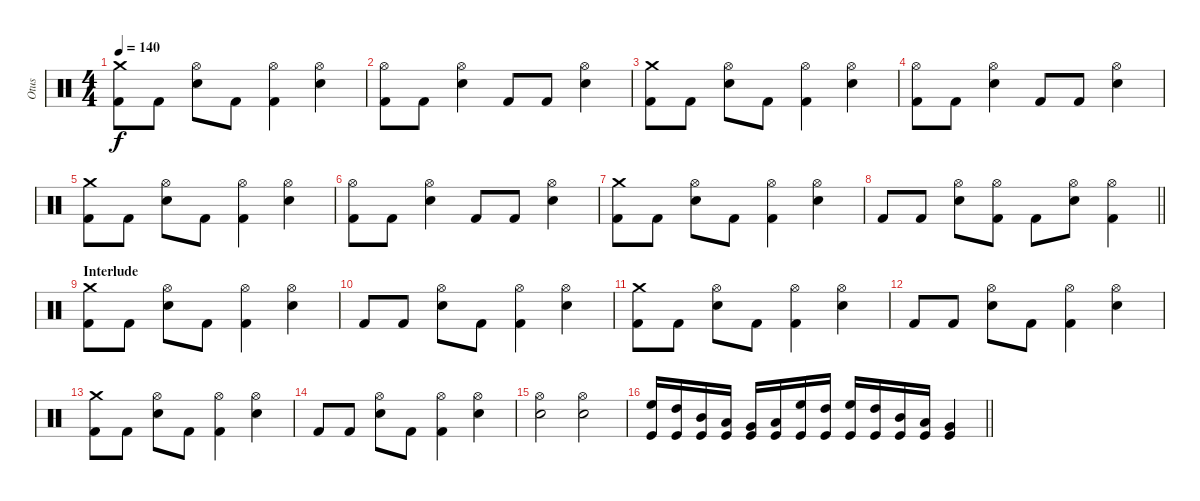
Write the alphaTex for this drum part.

\track ("Otus" "Otus") {instrument percussion}
\staff {score}
\articulation defaults
\ts (4 4)
\tempo 140
\clef neutral
\ks c
("Crash medium (hit)" "Kick (hit) 2").8{dy f} "Kick (hit) 2".8 ("Hi-Hat (open)" "Electric Snare (hit)").8 "Kick (hit) 2".8 ("Hi-Hat (open)" "Kick (hit) 2").4 ("Hi-Hat (open)" "Electric Snare (hit)").4 |
("Hi-Hat (open)" "Kick (hit) 2").8 "Kick (hit) 2".8 ("Hi-Hat (open)" "Electric Snare (hit)").4 "Kick (hit) 2".8 "Kick (hit) 2".8 ("Hi-Hat (open)" "Electric Snare (hit)").4 |
("Crash medium (hit)" "Kick (hit) 2").8 "Kick (hit) 2".8 ("Hi-Hat (open)" "Electric Snare (hit)").8 "Kick (hit) 2".8 ("Hi-Hat (open)" "Kick (hit) 2").4 ("Hi-Hat (open)" "Electric Snare (hit)").4 |
("Hi-Hat (open)" "Kick (hit) 2").8 "Kick (hit) 2".8 ("Hi-Hat (open)" "Electric Snare (hit)").4 "Kick (hit) 2".8 "Kick (hit) 2".8 ("Hi-Hat (open)" "Electric Snare (hit)").4 |
("Crash medium (hit)" "Kick (hit) 2").8 "Kick (hit) 2".8 ("Hi-Hat (open)" "Electric Snare (hit)").8 "Kick (hit) 2".8 ("Hi-Hat (open)" "Kick (hit) 2").4 ("Hi-Hat (open)" "Electric Snare (hit)").4 |
("Hi-Hat (open)" "Kick (hit) 2").8 "Kick (hit) 2".8 ("Hi-Hat (open)" "Electric Snare (hit)").4 "Kick (hit) 2".8 "Kick (hit) 2".8 ("Hi-Hat (open)" "Electric Snare (hit)").4 |
("Crash medium (hit)" "Kick (hit) 2").8 "Kick (hit) 2".8 ("Hi-Hat (open)" "Electric Snare (hit)").8 "Kick (hit) 2".8 ("Hi-Hat (open)" "Kick (hit) 2").4 ("Hi-Hat (open)" "Electric Snare (hit)").4 |
\barLineRight lightlight "Kick (hit) 2".8 "Kick (hit) 2".8
("Hi-Hat (open)" "Electric Snare (hit)").8 ("Hi-Hat (open)" "Kick (hit) 2").8 "Kick (hit) 2".8 ("Hi-Hat (open)" "Electric Snare (hit)").8 ("Hi-Hat (open)" "Kick (hit) 2").4 |
\section ("" "Interlude")
("Crash medium (hit)" "Kick (hit) 2").8 "Kick (hit) 2".8 ("Hi-Hat (open)" "Electric Snare (hit)").8 "Kick (hit) 2".8 ("Hi-Hat (open)" "Kick (hit) 2").4 ("Hi-Hat (open)" "Electric Snare (hit)").4 |
"Kick (hit) 2".8 "Kick (hit) 2".8 ("Hi-Hat (open)" "Electric Snare (hit)").8 "Kick (hit) 2".8 ("Hi-Hat (open)" "Kick (hit) 2").4 ("Hi-Hat (open)" "Electric Snare (hit)").4 |
("Crash medium (hit)" "Kick (hit) 2").8 "Kick (hit) 2".8 ("Hi-Hat (open)" "Electric Snare (hit)").8 "Kick (hit) 2".8 ("Hi-Hat (open)" "Kick (hit) 2").4 ("Hi-Hat (open)" "Electric Snare (hit)").4 |
"Kick (hit) 2".8 "Kick (hit) 2".8 ("Hi-Hat (open)" "Electric Snare (hit)").8 "Kick (hit) 2".8 ("Hi-Hat (open)" "Kick (hit) 2").4 ("Hi-Hat (open)" "Electric Snare (hit)").4 |
("Crash medium (hit)" "Kick (hit) 2").8 "Kick (hit) 2".8 ("Hi-Hat (open)" "Electric Snare (hit)").8 "Kick (hit) 2".8 ("Hi-Hat (open)" "Kick (hit) 2").4 ("Hi-Hat (open)" "Electric Snare (hit)").4 |
"Kick (hit) 2".8 "Kick (hit) 2".8 ("Hi-Hat (open)" "Electric Snare (hit)").8 "Kick (hit) 2".8 ("Hi-Hat (open)" "Kick (hit) 2").4 ("Hi-Hat (open)" "Electric Snare (hit)").4 |
("Hi-Hat (open)" "Electric Snare (hit)").2 ("Hi-Hat (open)" "Electric Snare (hit)").2 |
\barLineRight lightlight
("High Floor Tom (hit)" "Kick (hit)").16 ("High Tom (hit)" "Kick (hit)").16 ("Mid Tom (hit)" "Kick (hit)").16 ("Low Tom (hit)" "Kick (hit)").16 ("Very Low Tom (hit)" "Kick (hit)").16 ("Low Floor Tom (hit)" "Kick (hit)").16 ("High Floor Tom (hit)" "Kick (hit)").16 ("High Tom (hit)" "Kick (hit)").16 ("High Floor Tom (hit)" "Kick (hit)").16 ("High Tom (hit)" "Kick (hit)").16 ("Mid Tom (hit)" "Kick (hit)").16 ("Low Tom (hit)" "Kick (hit)").16 ("Very Low Tom (hit)" "Kick (hit)").4
